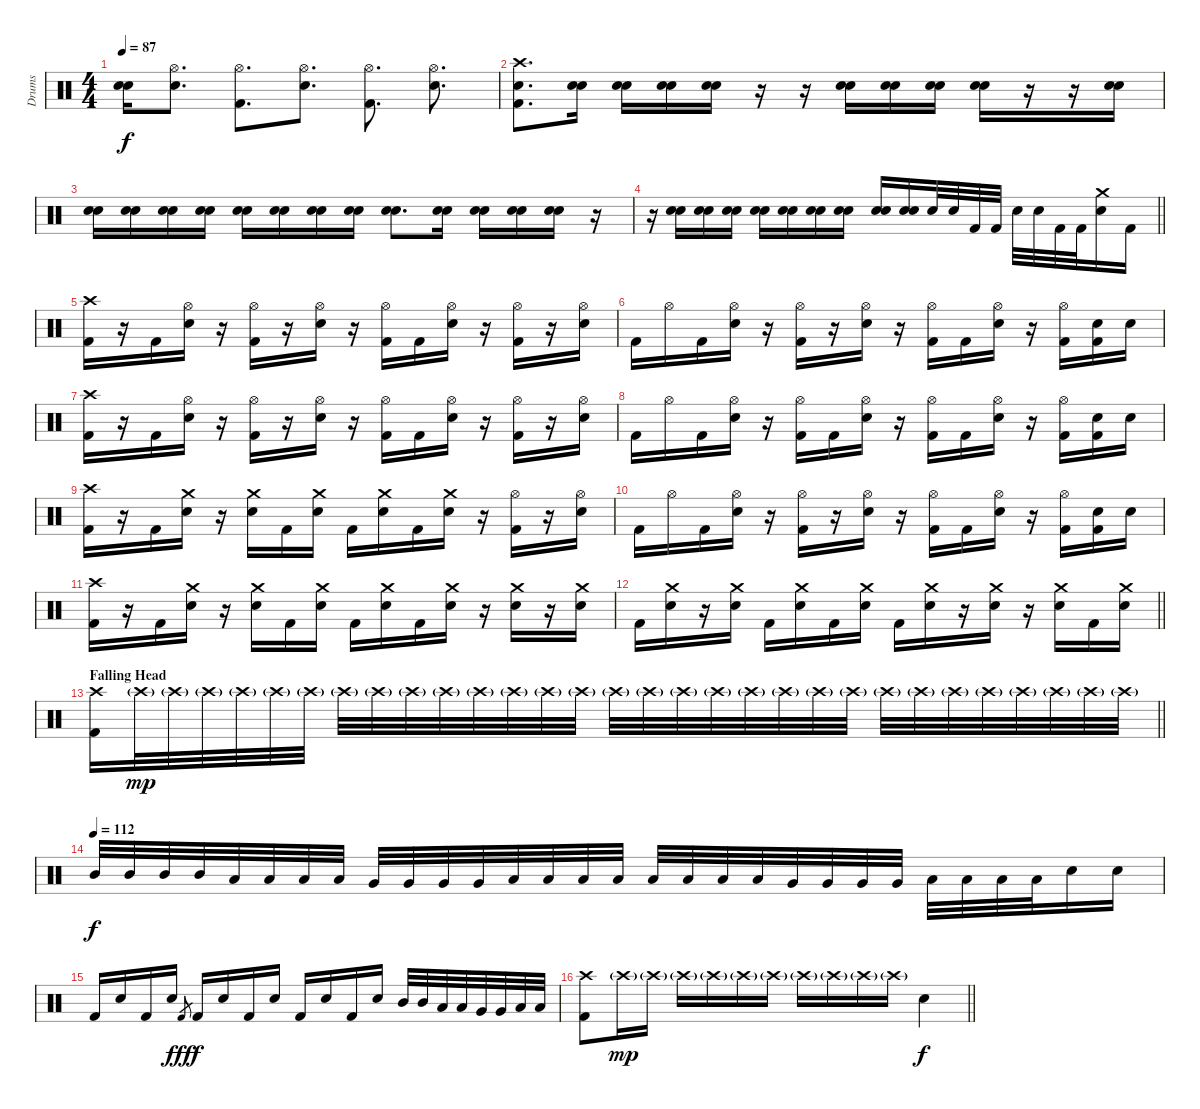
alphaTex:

\track ("Drums" "Drums") {instrument percussion}
\staff
\articulation defaults
\ts (4 4)
\tempo 87
\clef neutral
\ks c
("Snare (hit)"{t} "Snare (hit)"{t}).16{dy f} ("Hi-Hat (open)" "Electric Snare (hit)").8{d} ("Hi-Hat (open)" "Kick (hit) 2").8{d} ("Hi-Hat (open)" "Electric Snare (hit)").8{d} ("Hi-Hat (open)" "Kick (hit) 2").8{d} ("Hi-Hat (open)" "Electric Snare (hit)").8{d} |
("Crash high (hit)" "Snare (hit) 2" "Kick (hit) 2").8{d} ("Snare (hit) 2" "Electric Snare (hit)").16 ("Snare (hit) 2" "Electric Snare (hit)").16 ("Snare (hit) 2" "Electric Snare (hit)").16 ("Snare (hit) 2" "Electric Snare (hit)").16 r.16 r.16 ("Snare (hit) 2" "Electric Snare (hit)").16 ("Snare (hit) 2" "Electric Snare (hit)").16 ("Snare (hit) 2" "Electric Snare (hit)").16 ("Snare (hit) 2" "Electric Snare (hit)").16 r.16 r.16 ("Snare (hit) 2" "Electric Snare (hit)").16 |
("Snare (hit) 2" "Electric Snare (hit)").16 ("Snare (hit) 2" "Electric Snare (hit)").16 ("Snare (hit) 2" "Electric Snare (hit)").16 ("Snare (hit) 2" "Electric Snare (hit)").16 ("Snare (hit) 2" "Electric Snare (hit)").16 ("Snare (hit) 2" "Electric Snare (hit)").16 ("Snare (hit) 2" "Electric Snare (hit)").16 ("Snare (hit) 2" "Electric Snare (hit)").16 ("Snare (hit) 2" "Electric Snare (hit)").8{d} ("Snare (hit) 2" "Electric Snare (hit)").16 ("Snare (hit) 2" "Electric Snare (hit)").16 ("Snare (hit) 2" "Electric Snare (hit)").16 ("Snare (hit) 2" "Electric Snare (hit)").16 r.16 |
\barLineRight lightlight
r.16 ("Snare (hit) 2" "Electric Snare (hit)").16 ("Snare (hit) 2" "Electric Snare (hit)").16 ("Snare (hit) 2" "Electric Snare (hit)").16 ("Snare (hit) 2" "Electric Snare (hit)").16 ("Snare (hit) 2" "Electric Snare (hit)").16 ("Snare (hit) 2" "Electric Snare (hit)").16 ("Snare (hit) 2" "Electric Snare (hit)").16 ("Snare (hit) 2" "Electric Snare (hit)").16 ("Snare (hit) 2" "Electric Snare (hit)").16 "Snare (hit) 2".32 "Snare (hit) 2".32 "Kick (hit) 2".32 "Kick (hit) 2".32 "Snare (hit) 2".32 "Snare (hit) 2".32 "Kick (hit) 2".32 "Kick (hit) 2".32 ("Crash medium (hit)" "Snare (hit) 2").16 "Kick (hit) 2".16 |
\section ("" "")
("Crash high (hit)" "Kick (hit) 2").16 r.16 "Kick (hit) 2".16 ("Hi-Hat (open)" "Electric Snare (hit)").16 r.16 ("Hi-Hat (open)" "Kick (hit) 2").16 r.16 ("Hi-Hat (open)" "Electric Snare (hit)").16 r.16 ("Hi-Hat (open)" "Kick (hit) 2").16 "Kick (hit) 2".16 ("Hi-Hat (open)" "Electric Snare (hit)").16 r.16 ("Hi-Hat (open)" "Kick (hit) 2").16 r.16 ("Hi-Hat (open)" "Electric Snare (hit)").16 |
"Kick (hit) 2".16 "Hi-Hat (open)".16 "Kick (hit) 2".16 ("Hi-Hat (open)" "Electric Snare (hit)").16 r.16 ("Hi-Hat (open)" "Kick (hit) 2").16 r.16 ("Hi-Hat (open)" "Electric Snare (hit)").16 r.16 ("Hi-Hat (open)" "Kick (hit) 2").16 "Kick (hit) 2".16 ("Hi-Hat (open)" "Electric Snare (hit)").16 r.16 ("Hi-Hat (open)" "Kick (hit) 2").16 ("Electric Snare (hit)" "Kick (hit) 2").16 "Electric Snare (hit)".16 |
("Crash high (hit)" "Kick (hit) 2").16 r.16 "Kick (hit) 2".16 ("Hi-Hat (open)" "Electric Snare (hit)").16 r.16 ("Hi-Hat (open)" "Kick (hit) 2").16 r.16 ("Hi-Hat (open)" "Electric Snare (hit)").16 r.16 ("Hi-Hat (open)" "Kick (hit) 2").16 "Kick (hit) 2".16 ("Hi-Hat (open)" "Electric Snare (hit)").16 r.16 ("Hi-Hat (open)" "Kick (hit) 2").16 r.16 ("Hi-Hat (open)" "Electric Snare (hit)").16 |
"Kick (hit) 2".16 "Hi-Hat (open)".16 "Kick (hit) 2".16 ("Hi-Hat (open)" "Electric Snare (hit)").16 r.16 ("Hi-Hat (open)" "Kick (hit) 2").16 "Kick (hit) 2".16 ("Hi-Hat (open)" "Electric Snare (hit)").16 r.16 ("Hi-Hat (open)" "Kick (hit) 2").16 "Kick (hit) 2".16 ("Hi-Hat (open)" "Electric Snare (hit)").16 r.16 ("Hi-Hat (open)" "Kick (hit) 2").16 ("Electric Snare (hit)" "Kick (hit) 2").16 "Electric Snare (hit)".16 |
("Crash high (hit)" "Kick (hit) 2").16 r.16 "Kick (hit) 2".16 ("Crash medium (hit)" "Electric Snare (hit)").16 r.16 ("Crash medium (hit)" "Electric Snare (hit)").16 "Kick (hit) 2".16 ("Crash medium (hit)" "Electric Snare (hit)").16 "Kick (hit) 2".16 ("Crash medium (hit)" "Electric Snare (hit)").16 "Kick (hit) 2".16 ("Crash medium (hit)" "Electric Snare (hit)").16 r.16 ("Hi-Hat (open)" "Kick (hit) 2").16 r.16 ("Hi-Hat (open)" "Electric Snare (hit)").16 |
"Kick (hit) 2".16 "Hi-Hat (open)".16 "Kick (hit) 2".16 ("Hi-Hat (open)" "Electric Snare (hit)").16 r.16 ("Hi-Hat (open)" "Kick (hit) 2").16 r.16 ("Hi-Hat (open)" "Electric Snare (hit)").16 r.16 ("Hi-Hat (open)" "Kick (hit) 2").16 "Kick (hit) 2".16 ("Hi-Hat (open)" "Electric Snare (hit)").16 r.16 ("Hi-Hat (open)" "Kick (hit) 2").16 ("Electric Snare (hit)" "Kick (hit) 2").16 "Electric Snare (hit)".16 |
("Crash high (hit)" "Kick (hit) 2").16 r.16 "Kick (hit) 2".16 ("Crash medium (hit)" "Electric Snare (hit)").16 r.16 ("Crash medium (hit)" "Electric Snare (hit)").16 "Kick (hit) 2".16 ("Crash medium (hit)" "Electric Snare (hit)").16 "Kick (hit) 2".16 ("Crash medium (hit)" "Electric Snare (hit)").16 "Kick (hit) 2".16 ("Crash medium (hit)" "Electric Snare (hit)").16 r.16 ("Crash medium (hit)" "Electric Snare (hit)").16 r.16 ("Crash medium (hit)" "Electric Snare (hit)").16 |
\barLineRight lightlight "Kick (hit) 2".16
("Crash medium (hit)" "Electric Snare (hit)").16 r.16 ("Crash medium (hit)" "Electric Snare (hit)").16 "Kick (hit) 2".16 ("Crash medium (hit)" "Electric Snare (hit)").16 "Kick (hit) 2".16 ("Crash medium (hit)" "Electric Snare (hit)").16 "Kick (hit) 2".16 ("Crash medium (hit)" "Electric Snare (hit)").16 r.16 ("Crash medium (hit)" "Electric Snare (hit)").16 r.16 ("Crash medium (hit)" "Electric Snare (hit)").16 "Kick (hit) 2".16 ("Crash medium (hit)" "Electric Snare (hit)").16 |
\section ("" "Falling Head")
\barLineRight lightlight
("Crash high (hit)" "Kick (hit) 2").16 "Crash high (hit)"{g}.32{dy mp} "Crash high (hit)"{g}.32 "Crash high (hit)"{g}.32 "Crash high (hit)"{g}.32 "Crash high (hit)"{g}.32 "Crash high (hit)"{g}.32 "Crash high (hit)"{g}.32 "Crash high (hit)"{g}.32 "Crash high (hit)"{g}.32 "Crash high (hit)"{g}.32 "Crash high (hit)"{g}.32 "Crash high (hit)"{g}.32 "Crash high (hit)"{g}.32 "Crash high (hit)"{g}.32 "Crash high (hit)"{g}.32 "Crash high (hit)"{g}.32 "Crash high (hit)"{g}.32 "Crash high (hit)"{g}.32 "Crash high (hit)"{g}.32 "Crash high (hit)"{g}.32 "Crash high (hit)"{g}.32 "Crash high (hit)"{g}.32 "Crash high (hit)"{g}.32 "Crash high (hit)"{g}.32 "Crash high (hit)"{g}.32 "Crash high (hit)"{g}.32 "Crash high (hit)"{g}.32 "Crash high (hit)"{g}.32 "Crash high (hit)"{g}.32 "Crash high (hit)"{g}.32 |
\tempo (112)
"Mid Tom (hit)".32{dy f} "Mid Tom (hit)".32 "Mid Tom (hit)".32 "Mid Tom (hit)".32 "Low Tom (hit)".32 "Low Tom (hit)".32 "Low Tom (hit)".32 "Low Tom (hit)".32 "Very Low Tom (hit)".32 "Very Low Tom (hit)".32 "Very Low Tom (hit)".32 "Very Low Tom (hit)".32 "Low Floor Tom (hit)".32 "Low Floor Tom (hit)".32 "Low Floor Tom (hit)".32 "Low Floor Tom (hit)".32 "Low Tom (hit)".32 "Low Tom (hit)".32 "Low Tom (hit)".32 "Low Tom (hit)".32 "Very Low Tom (hit)".32 "Very Low Tom (hit)".32 "Very Low Tom (hit)".32 "Very Low Tom (hit)".32 "Low Floor Tom (hit)".32 "Low Floor Tom (hit)".32 "Low Floor Tom (hit)".32 "Low Floor Tom (hit)".32 "Snare (hit) 2".16 "Snare (hit) 2".16 |
"Kick (hit) 2".16 "Snare (hit) 2".16 "Kick (hit) 2".16 "Snare (hit) 2".16 "Kick (hit) 2"{h}.8{gr dy fff} "Kick (hit) 2".16{dy f} "Snare (hit) 2".16 "Kick (hit) 2".16 "Snare (hit) 2".16 "Kick (hit) 2".16 "Snare (hit) 2".16 "Kick (hit) 2".16 "Snare (hit) 2".16 "Mid Tom (hit)".32 "Mid Tom (hit)".32 "Low Tom (hit)".32 "Low Tom (hit)".32 "Very Low Tom (hit)".32 "Very Low Tom (hit)".32 "Low Floor Tom (hit)".32 "Low Floor Tom (hit)".32 |
\barLineRight lightlight
("Crash high (hit)" "Kick (hit) 2").8 "Crash high (hit)"{g}.16{dy mp} "Crash high (hit)"{g}.16 "Crash high (hit)"{g}.16 "Crash high (hit)"{g}.16 "Crash high (hit)"{g}.16 "Crash high (hit)"{g}.16 "Crash high (hit)"{g}.16 "Crash high (hit)"{g}.16 "Crash high (hit)"{g}.16 "Crash high (hit)"{g}.16 "Snare (hit) 2".4{dy f}
